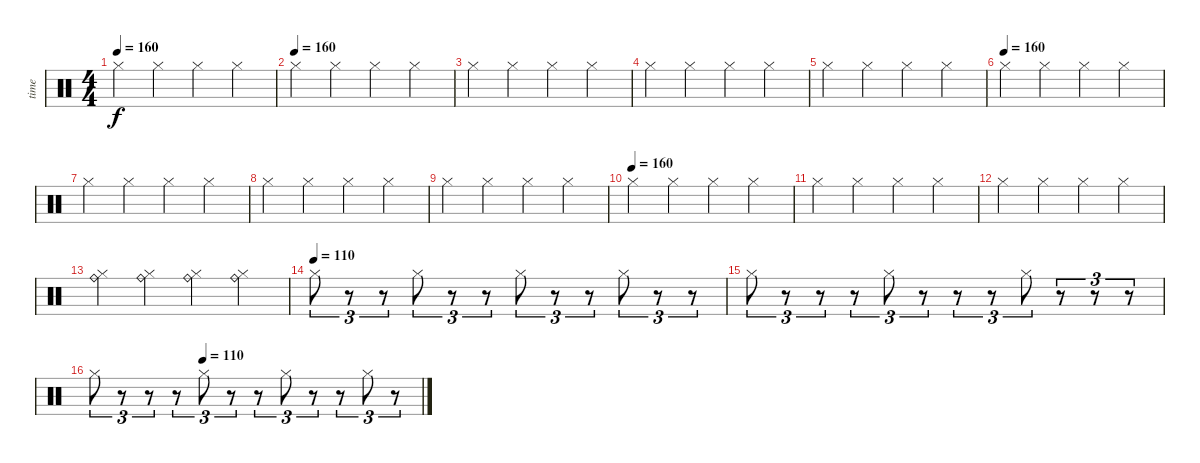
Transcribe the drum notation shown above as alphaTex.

\track ("time" "time") {instrument percussion}
\staff {score}
\articulation defaults
\ts (4 4)
\tempo 160
\clef neutral
\ks c "Hi-Hat (closed)".4{dy f} "Hi-Hat (closed)".4 "Hi-Hat (closed)".4 "Hi-Hat (closed)".4
|
\tempo (160)
"Hi-Hat (closed)".4 "Hi-Hat (closed)".4 "Hi-Hat (closed)".4 "Hi-Hat (closed)".4 |
"Hi-Hat (closed)".4 "Hi-Hat (closed)".4 "Hi-Hat (closed)".4 "Hi-Hat (closed)".4 |
"Hi-Hat (closed)".4 "Hi-Hat (closed)".4 "Hi-Hat (closed)".4 "Hi-Hat (closed)".4 |
"Hi-Hat (closed)".4 "Hi-Hat (closed)".4 "Hi-Hat (closed)".4 "Hi-Hat (closed)".4 |
\tempo (160)
"Hi-Hat (closed)".4 "Hi-Hat (closed)".4 "Hi-Hat (closed)".4 "Hi-Hat (closed)".4 |
"Hi-Hat (closed)".4 "Hi-Hat (closed)".4 "Hi-Hat (closed)".4 "Hi-Hat (closed)".4 |
"Hi-Hat (closed)".4 "Hi-Hat (closed)".4 "Hi-Hat (closed)".4 "Hi-Hat (closed)".4 |
"Hi-Hat (closed)".4 "Hi-Hat (closed)".4 "Hi-Hat (closed)".4 "Hi-Hat (closed)".4 |
\tempo (160)
"Hi-Hat (closed)".4 "Hi-Hat (closed)".4 "Hi-Hat (closed)".4 "Hi-Hat (closed)".4 |
"Hi-Hat (closed)".4 "Hi-Hat (closed)".4 "Hi-Hat (closed)".4 "Hi-Hat (closed)".4 |
"Hi-Hat (closed)".4 "Hi-Hat (closed)".4 "Hi-Hat (closed)".4 "Hi-Hat (closed)".4 |
("Ride (bell)" "Hi-Hat (closed)").4 ("Ride (bell)" "Hi-Hat (closed)").4 ("Ride (bell)" "Hi-Hat (closed)").4 ("Ride (bell)" "Hi-Hat (closed)").4 |
\tempo (110)
"Hi-Hat (closed)".8{tu (3 2)} r.8{tu (3 2)} r.8{tu (3 2)} "Hi-Hat (closed)".8{tu (3 2)} r.8{tu (3 2)} r.8{tu (3 2)} "Hi-Hat (closed)".8{tu (3 2)} r.8{tu (3 2)} r.8{tu (3 2)} "Hi-Hat (closed)".8{tu (3 2)} r.8{tu (3 2)} r.8{tu (3 2)} |
"Hi-Hat (closed)".8{tu (3 2)} r.8{tu (3 2)} r.8{tu (3 2)} r.8{tu (3 2)} "Hi-Hat (closed)".8{tu (3 2)} r.8{tu (3 2)} r.8{tu (3 2)} r.8{tu (3 2)} "Hi-Hat (closed)".8{tu (3 2)} r.8{tu (3 2)} r.8{tu (3 2)} r.8{tu (3 2)} |
\tempo (110 0.3333333333333333)
"Hi-Hat (closed)".8{tu (3 2)} r.8{tu (3 2)} r.8{tu (3 2)} r.8{tu (3 2)} "Hi-Hat (closed)".8{tu (3 2)} r.8{tu (3 2)} r.8{tu (3 2)} "Hi-Hat (closed)".8{tu (3 2)} r.8{tu (3 2)} r.8{tu (3 2)} "Hi-Hat (closed)".8{tu (3 2)} r.8{tu (3 2)}
